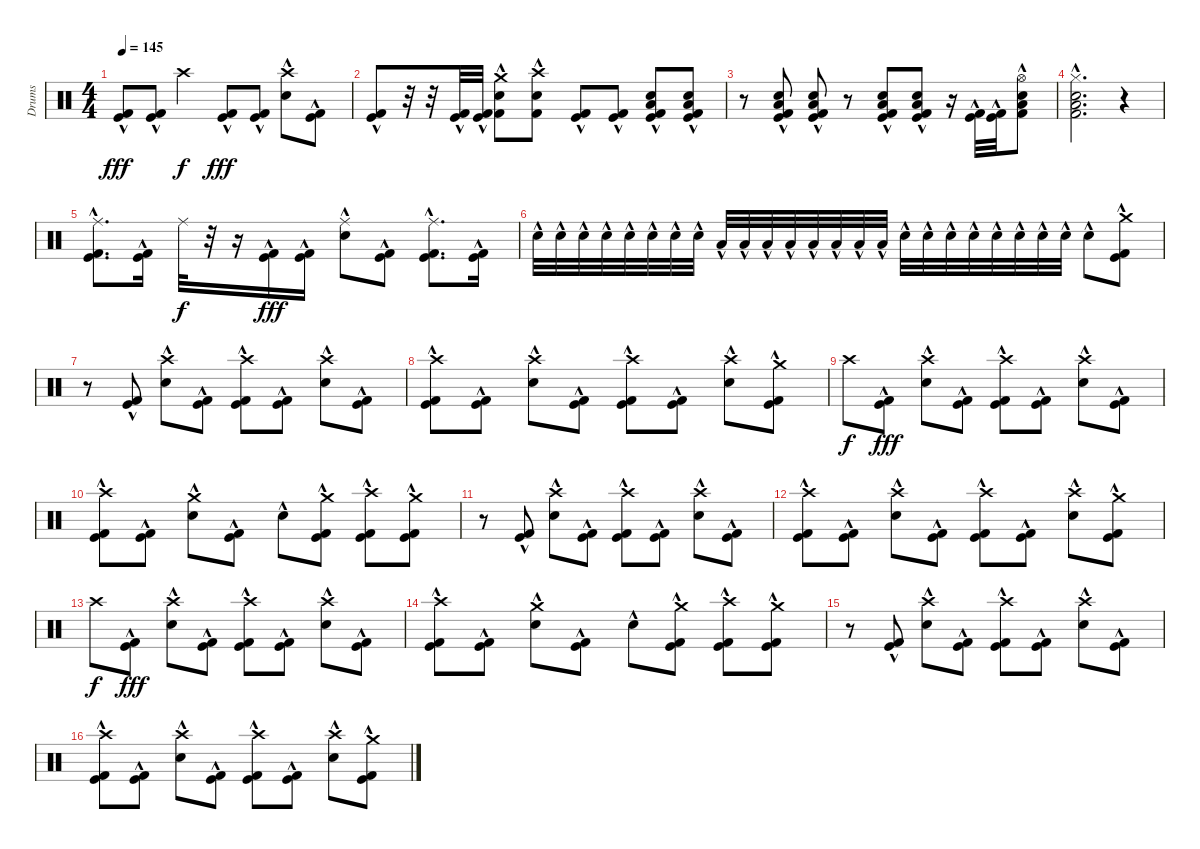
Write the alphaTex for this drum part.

\track ("Drums" "Drums") {instrument percussion}
\staff {score}
\articulation defaults
\ts (4 4)
\tempo 145
\clef neutral
\ks c
("Kick (hit)"{hac} "Kick (hit) 2"{hac}).8{dy fff} ("Kick (hit)"{hac} "Kick (hit) 2"{hac}).8 "Crash high (hit)".4{dy f} ("Kick (hit)"{hac} "Kick (hit) 2"{hac}).8{dy fff} ("Kick (hit)"{hac} "Kick (hit) 2"{hac}).8 ("Crash high (hit)" "Electric Snare (hit)"{hac}).8 ("Kick (hit)"{hac} "Kick (hit) 2"{hac}).8 |
("Kick (hit)"{hac} "Kick (hit) 2"{hac}).8 r.32 r.32 ("Kick (hit)"{hac} "Kick (hit) 2"{hac}).32 ("Kick (hit)"{hac} "Kick (hit) 2"{hac}).32 ("Crash medium (hit)" "Electric Snare (hit)"{hac} "Kick (hit) 2"{hac}).8 ("Crash high (hit)" "Electric Snare (hit)"{hac} "Kick (hit) 2"{hac}).8 ("Kick (hit)"{hac} "Kick (hit) 2"{hac}).8 ("Kick (hit)"{hac} "Kick (hit) 2"{hac}).8 ("Kick (hit)"{hac} "Low Floor Tom (hit)" "Electric Snare (hit)"{hac} "Kick (hit) 2"{hac}).8 ("Kick (hit)"{hac} "Low Floor Tom (hit)" "Electric Snare (hit)"{hac} "Kick (hit) 2"{hac}).8 |
r.8 ("Kick (hit)"{hac} "Low Floor Tom (hit)"{hac} "Electric Snare (hit)"{hac} "Kick (hit) 2"{hac}).8 ("Kick (hit)"{hac} "Low Floor Tom (hit)"{hac} "Electric Snare (hit)"{hac} "Kick (hit) 2"{hac}).8 r.8 ("Kick (hit)"{hac} "Low Floor Tom (hit)"{hac} "Electric Snare (hit)"{hac} "Kick (hit) 2"{hac}).8 ("Kick (hit)"{hac} "Low Floor Tom (hit)"{hac} "Electric Snare (hit)"{hac} "Kick (hit) 2"{hac}).8 r.16 ("Kick (hit)"{hac} "Kick (hit) 2"{hac}).32 ("Kick (hit)"{hac} "Kick (hit) 2"{hac}).32 ("Hi-Hat (open)" "Low Floor Tom (hit)" "Electric Snare (hit)"{hac} "Kick (hit) 2"{hac}).8 |
("Hi-Hat (closed)" "Low Floor Tom (hit)" "Electric Snare (hit)"{hac} "Kick (hit) 2"{hac}).2{d} r.4 |
("Ride (middle)" "Kick (hit)"{hac} "Kick (hit) 2"{hac}).8{d} ("Kick (hit)"{hac} "Kick (hit) 2"{hac}).16 "Ride (middle)".32{dy f} r.32 r.16 ("Kick (hit)"{hac} "Kick (hit) 2"{hac}).16{dy fff} ("Kick (hit)"{hac} "Kick (hit) 2"{hac}).16 ("Ride (middle)" "Electric Snare (hit)"{hac}).8 ("Kick (hit)"{hac} "Kick (hit) 2"{hac}).8 ("Ride (middle)" "Kick (hit)"{hac} "Kick (hit) 2"{hac}).8{d} ("Kick (hit)"{hac} "Kick (hit) 2"{hac}).16 |
"Electric Snare (hit)"{hac}.32 "Electric Snare (hit)"{hac}.32 "Electric Snare (hit)"{hac}.32 "Electric Snare (hit)"{hac}.32 "Electric Snare (hit)"{hac}.32 "Electric Snare (hit)"{hac}.32 "Electric Snare (hit)"{hac}.32 "Electric Snare (hit)"{hac}.32 "Low Tom (hit)"{hac}.32 "Low Tom (hit)"{hac}.32 "Low Tom (hit)"{hac}.32 "Low Tom (hit)"{hac}.32 "Low Tom (hit)"{hac}.32 "Low Tom (hit)"{hac}.32 "Low Tom (hit)"{hac}.32 "Low Tom (hit)"{hac}.32 "Electric Snare (hit)"{hac}.32 "Electric Snare (hit)"{hac}.32 "Electric Snare (hit)"{hac}.32 "Electric Snare (hit)"{hac}.32 "Electric Snare (hit)"{hac}.32 "Electric Snare (hit)"{hac}.32 "Electric Snare (hit)"{hac}.32 "Electric Snare (hit)"{hac}.32 "Electric Snare (hit)"{hac}.8 ("Crash medium (hit)" "Kick (hit)"{hac} "Kick (hit) 2"{hac}).8 |
r.8 ("Kick (hit)"{hac} "Kick (hit) 2"{hac}).8 ("Crash high (hit)" "Electric Snare (hit)"{hac}).8 ("Kick (hit)"{hac} "Kick (hit) 2"{hac}).8 ("Crash high (hit)" "Kick (hit)"{hac} "Kick (hit) 2"{hac}).8 ("Kick (hit)"{hac} "Kick (hit) 2"{hac}).8 ("Crash high (hit)" "Electric Snare (hit)"{hac}).8 ("Kick (hit)"{hac} "Kick (hit) 2"{hac}).8 |
("Crash high (hit)" "Kick (hit)"{hac} "Kick (hit) 2"{hac}).8 ("Kick (hit)"{hac} "Kick (hit) 2"{hac}).8 ("Crash high (hit)" "Electric Snare (hit)"{hac}).8 ("Kick (hit)"{hac} "Kick (hit) 2"{hac}).8 ("Crash high (hit)" "Kick (hit)"{hac} "Kick (hit) 2"{hac}).8 ("Kick (hit)"{hac} "Kick (hit) 2"{hac}).8 ("Crash high (hit)" "Electric Snare (hit)"{hac}).8 ("Crash medium (hit)" "Kick (hit)"{hac} "Kick (hit) 2"{hac}).8 |
"Crash high (hit)".8{dy f} ("Kick (hit)"{hac} "Kick (hit) 2"{hac}).8{dy fff} ("Crash high (hit)" "Electric Snare (hit)"{hac}).8 ("Kick (hit)"{hac} "Kick (hit) 2"{hac}).8 ("Crash high (hit)" "Kick (hit)"{hac} "Kick (hit) 2"{hac}).8 ("Kick (hit)"{hac} "Kick (hit) 2"{hac}).8 ("Crash high (hit)" "Electric Snare (hit)"{hac}).8 ("Kick (hit)"{hac} "Kick (hit) 2"{hac}).8 |
("Crash high (hit)" "Kick (hit)"{hac} "Kick (hit) 2"{hac}).8 ("Kick (hit)"{hac} "Kick (hit) 2"{hac}).8 ("Crash medium (hit)" "Electric Snare (hit)"{hac}).8 ("Kick (hit)"{hac} "Kick (hit) 2"{hac}).8 "Electric Snare (hit)"{hac}.8 ("Crash medium (hit)" "Kick (hit)"{hac} "Kick (hit) 2"{hac}).8 ("Crash high (hit)" "Kick (hit)"{hac} "Kick (hit) 2"{hac}).8 ("Crash medium (hit)" "Kick (hit)"{hac} "Kick (hit) 2"{hac}).8 |
r.8 ("Kick (hit)"{hac} "Kick (hit) 2"{hac}).8 ("Crash high (hit)" "Electric Snare (hit)"{hac}).8 ("Kick (hit)"{hac} "Kick (hit) 2"{hac}).8 ("Crash high (hit)" "Kick (hit)"{hac} "Kick (hit) 2"{hac}).8 ("Kick (hit)"{hac} "Kick (hit) 2"{hac}).8 ("Crash high (hit)" "Electric Snare (hit)"{hac}).8 ("Kick (hit)"{hac} "Kick (hit) 2"{hac}).8 |
("Crash high (hit)" "Kick (hit)"{hac} "Kick (hit) 2"{hac}).8 ("Kick (hit)"{hac} "Kick (hit) 2"{hac}).8 ("Crash high (hit)" "Electric Snare (hit)"{hac}).8 ("Kick (hit)"{hac} "Kick (hit) 2"{hac}).8 ("Crash high (hit)" "Kick (hit)"{hac} "Kick (hit) 2"{hac}).8 ("Kick (hit)"{hac} "Kick (hit) 2"{hac}).8 ("Crash high (hit)" "Electric Snare (hit)"{hac}).8 ("Crash medium (hit)" "Kick (hit)"{hac} "Kick (hit) 2"{hac}).8 |
"Crash high (hit)".8{dy f} ("Kick (hit)"{hac} "Kick (hit) 2"{hac}).8{dy fff} ("Crash high (hit)" "Electric Snare (hit)"{hac}).8 ("Kick (hit)"{hac} "Kick (hit) 2"{hac}).8 ("Crash high (hit)" "Kick (hit)"{hac} "Kick (hit) 2"{hac}).8 ("Kick (hit)"{hac} "Kick (hit) 2"{hac}).8 ("Crash high (hit)" "Electric Snare (hit)"{hac}).8 ("Kick (hit)"{hac} "Kick (hit) 2"{hac}).8 |
("Crash high (hit)" "Kick (hit)"{hac} "Kick (hit) 2"{hac}).8 ("Kick (hit)"{hac} "Kick (hit) 2"{hac}).8 ("Crash medium (hit)" "Electric Snare (hit)"{hac}).8 ("Kick (hit)"{hac} "Kick (hit) 2"{hac}).8 "Electric Snare (hit)"{hac}.8 ("Crash medium (hit)" "Kick (hit)"{hac} "Kick (hit) 2"{hac}).8 ("Crash high (hit)" "Kick (hit)"{hac} "Kick (hit) 2"{hac}).8 ("Crash medium (hit)" "Kick (hit)"{hac} "Kick (hit) 2"{hac}).8 |
r.8 ("Kick (hit)"{hac} "Kick (hit) 2"{hac}).8 ("Crash high (hit)" "Electric Snare (hit)"{hac}).8 ("Kick (hit)"{hac} "Kick (hit) 2"{hac}).8 ("Crash high (hit)" "Kick (hit)"{hac} "Kick (hit) 2"{hac}).8 ("Kick (hit)"{hac} "Kick (hit) 2"{hac}).8 ("Crash high (hit)" "Electric Snare (hit)"{hac}).8 ("Kick (hit)"{hac} "Kick (hit) 2"{hac}).8 |
("Crash high (hit)" "Kick (hit)"{hac} "Kick (hit) 2"{hac}).8 ("Kick (hit)"{hac} "Kick (hit) 2"{hac}).8 ("Crash high (hit)" "Electric Snare (hit)"{hac}).8 ("Kick (hit)"{hac} "Kick (hit) 2"{hac}).8 ("Crash high (hit)" "Kick (hit)"{hac} "Kick (hit) 2"{hac}).8 ("Kick (hit)"{hac} "Kick (hit) 2"{hac}).8 ("Crash high (hit)" "Electric Snare (hit)"{hac}).8 ("Crash medium (hit)" "Kick (hit)"{hac} "Kick (hit) 2"{hac}).8
